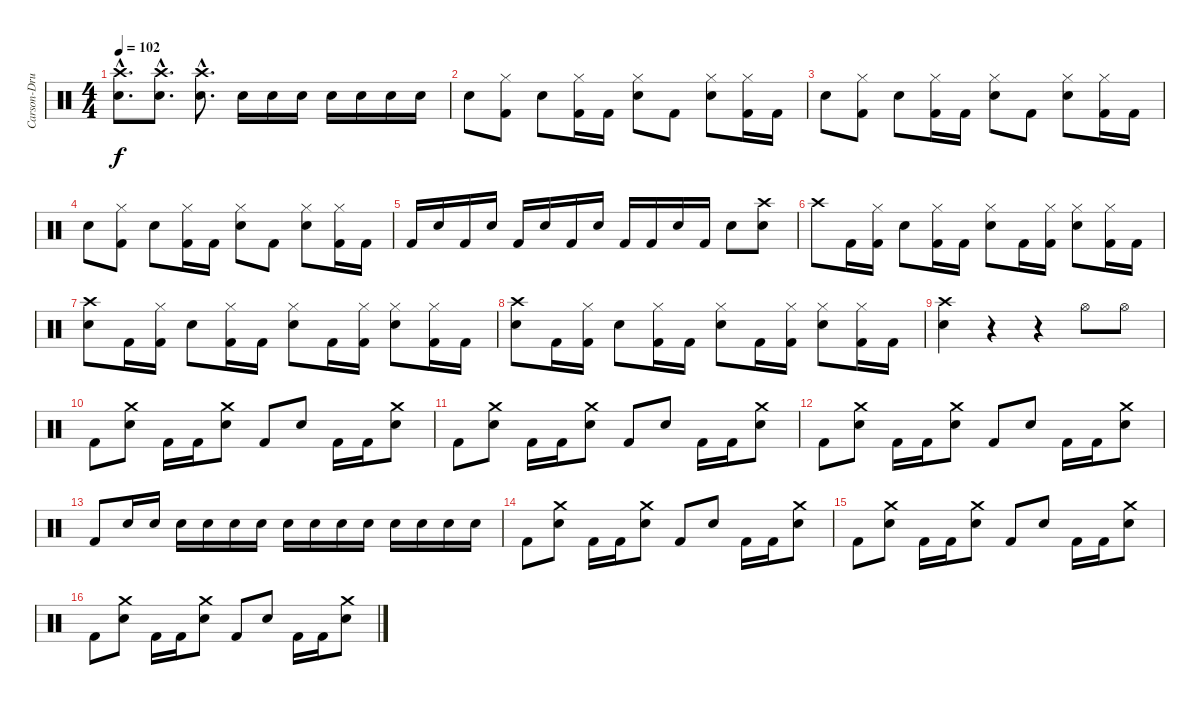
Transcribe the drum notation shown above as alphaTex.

\track ("Carson-Drums" "Carson-Dru") {instrument percussion}
\staff {score}
\articulation defaults
\ts (4 4)
\tempo 102
\clef neutral
\ks c
("Crash high (hit)"{hac} "Snare (hit) 2"{hac}).8{d dy f} ("Crash high (hit)"{hac} "Snare (hit) 2"{hac}).8{d} ("Crash high (hit)"{hac} "Snare (hit) 2"{hac}).8{d} "Snare (hit) 2".16 "Snare (hit) 2".16 "Snare (hit) 2".16 "Snare (hit) 2".16 "Snare (hit) 2".16 "Snare (hit) 2".16 "Snare (hit) 2".16 |
"Snare (hit) 2".8 ("Hi-Hat (closed)" "Kick (hit) 2").8 "Snare (hit) 2".8 ("Hi-Hat (closed)" "Kick (hit) 2").16 "Kick (hit) 2".16 ("Hi-Hat (closed)" "Snare (hit) 2").8 "Kick (hit) 2".8 ("Hi-Hat (closed)" "Snare (hit) 2").8 ("Hi-Hat (closed)" "Kick (hit) 2").16 "Kick (hit) 2".16 |
"Snare (hit) 2".8 ("Hi-Hat (closed)" "Kick (hit) 2").8 "Snare (hit) 2".8 ("Hi-Hat (closed)" "Kick (hit) 2").16 "Kick (hit) 2".16 ("Hi-Hat (closed)" "Snare (hit) 2").8 "Kick (hit) 2".8 ("Hi-Hat (closed)" "Snare (hit) 2").8 ("Hi-Hat (closed)" "Kick (hit) 2").16 "Kick (hit) 2".16 |
"Snare (hit) 2".8 ("Hi-Hat (closed)" "Kick (hit) 2").8 "Snare (hit) 2".8 ("Hi-Hat (closed)" "Kick (hit) 2").16 "Kick (hit) 2".16 ("Hi-Hat (closed)" "Snare (hit) 2").8 "Kick (hit) 2".8 ("Hi-Hat (closed)" "Snare (hit) 2").8 ("Hi-Hat (closed)" "Kick (hit) 2").16 "Kick (hit) 2".16 |
"Kick (hit) 2".16 "Snare (hit) 2".16 "Kick (hit) 2".16 "Snare (hit) 2".16 "Kick (hit) 2".16 "Snare (hit) 2".16 "Kick (hit) 2".16 "Snare (hit) 2".16 "Kick (hit) 2".16 "Kick (hit) 2".16 "Snare (hit) 2".16 "Kick (hit) 2".16 "Snare (hit) 2".8 ("Crash high (hit)" "Snare (hit) 2").8 |
"Crash high (hit)".8 "Kick (hit) 2".16 ("Hi-Hat (closed)" "Kick (hit) 2").16 "Snare (hit) 2".8 ("Hi-Hat (closed)" "Kick (hit) 2").16 "Kick (hit) 2".16 ("Hi-Hat (closed)" "Snare (hit) 2").8 "Kick (hit) 2".16 ("Hi-Hat (closed)" "Kick (hit) 2").16 ("Hi-Hat (closed)" "Snare (hit) 2").8 ("Hi-Hat (closed)" "Kick (hit) 2").16 "Kick (hit) 2".16 |
("Crash high (hit)" "Snare (hit) 2").8 "Kick (hit) 2".16 ("Hi-Hat (closed)" "Kick (hit) 2").16 "Snare (hit) 2".8 ("Hi-Hat (closed)" "Kick (hit) 2").16 "Kick (hit) 2".16 ("Hi-Hat (closed)" "Snare (hit) 2").8 "Kick (hit) 2".16 ("Hi-Hat (closed)" "Kick (hit) 2").16 ("Hi-Hat (closed)" "Snare (hit) 2").8 ("Hi-Hat (closed)" "Kick (hit) 2").16 "Kick (hit) 2".16 |
("Crash high (hit)" "Snare (hit) 2").8 "Kick (hit) 2".16 ("Hi-Hat (closed)" "Kick (hit) 2").16 "Snare (hit) 2".8 ("Hi-Hat (closed)" "Kick (hit) 2").16 "Kick (hit) 2".16 ("Hi-Hat (closed)" "Snare (hit) 2").8 "Kick (hit) 2".16 ("Hi-Hat (closed)" "Kick (hit) 2").16 ("Hi-Hat (closed)" "Snare (hit) 2").8 ("Hi-Hat (closed)" "Kick (hit) 2").16 "Kick (hit) 2".16 |
("Snare (hit) 2" "Crash high (hit)").4 r.4 r.4 "Hi-Hat (open)".8 "Hi-Hat (open)".8 |
"Kick (hit) 2".8 ("Crash medium (hit)" "Snare (hit) 2").8 "Kick (hit) 2".16 "Kick (hit) 2".16 ("Crash medium (hit)" "Snare (hit) 2").8 "Kick (hit) 2".8 "Snare (hit) 2".8 "Kick (hit) 2".16 "Kick (hit) 2".16 ("Crash medium (hit)" "Snare (hit) 2").8 |
"Kick (hit) 2".8 ("Crash medium (hit)" "Snare (hit) 2").8 "Kick (hit) 2".16 "Kick (hit) 2".16 ("Crash medium (hit)" "Snare (hit) 2").8 "Kick (hit) 2".8 "Snare (hit) 2".8 "Kick (hit) 2".16 "Kick (hit) 2".16 ("Crash medium (hit)" "Snare (hit) 2").8 |
"Kick (hit) 2".8 ("Crash medium (hit)" "Snare (hit) 2").8 "Kick (hit) 2".16 "Kick (hit) 2".16 ("Crash medium (hit)" "Snare (hit) 2").8 "Kick (hit) 2".8 "Snare (hit) 2".8 "Kick (hit) 2".16 "Kick (hit) 2".16 ("Crash medium (hit)" "Snare (hit) 2").8 |
"Kick (hit) 2".8 "Snare (hit) 2".16 "Snare (hit) 2".16 "Snare (hit) 2".16 "Snare (hit) 2".16 "Snare (hit) 2".16 "Snare (hit) 2".16 "Snare (hit) 2".16 "Snare (hit) 2".16 "Snare (hit) 2".16 "Snare (hit) 2".16 "Snare (hit) 2".16 "Snare (hit) 2".16 "Snare (hit) 2".16 "Snare (hit) 2".16 |
"Kick (hit) 2".8 ("Crash medium (hit)" "Snare (hit) 2").8 "Kick (hit) 2".16 "Kick (hit) 2".16 ("Crash medium (hit)" "Snare (hit) 2").8 "Kick (hit) 2".8 "Snare (hit) 2".8 "Kick (hit) 2".16 "Kick (hit) 2".16 ("Crash medium (hit)" "Snare (hit) 2").8 |
"Kick (hit) 2".8 ("Crash medium (hit)" "Snare (hit) 2").8 "Kick (hit) 2".16 "Kick (hit) 2".16 ("Crash medium (hit)" "Snare (hit) 2").8 "Kick (hit) 2".8 "Snare (hit) 2".8 "Kick (hit) 2".16 "Kick (hit) 2".16 ("Crash medium (hit)" "Snare (hit) 2").8 |
"Kick (hit) 2".8 ("Crash medium (hit)" "Snare (hit) 2").8 "Kick (hit) 2".16 "Kick (hit) 2".16 ("Crash medium (hit)" "Snare (hit) 2").8 "Kick (hit) 2".8 "Snare (hit) 2".8 "Kick (hit) 2".16 "Kick (hit) 2".16 ("Crash medium (hit)" "Snare (hit) 2").8
